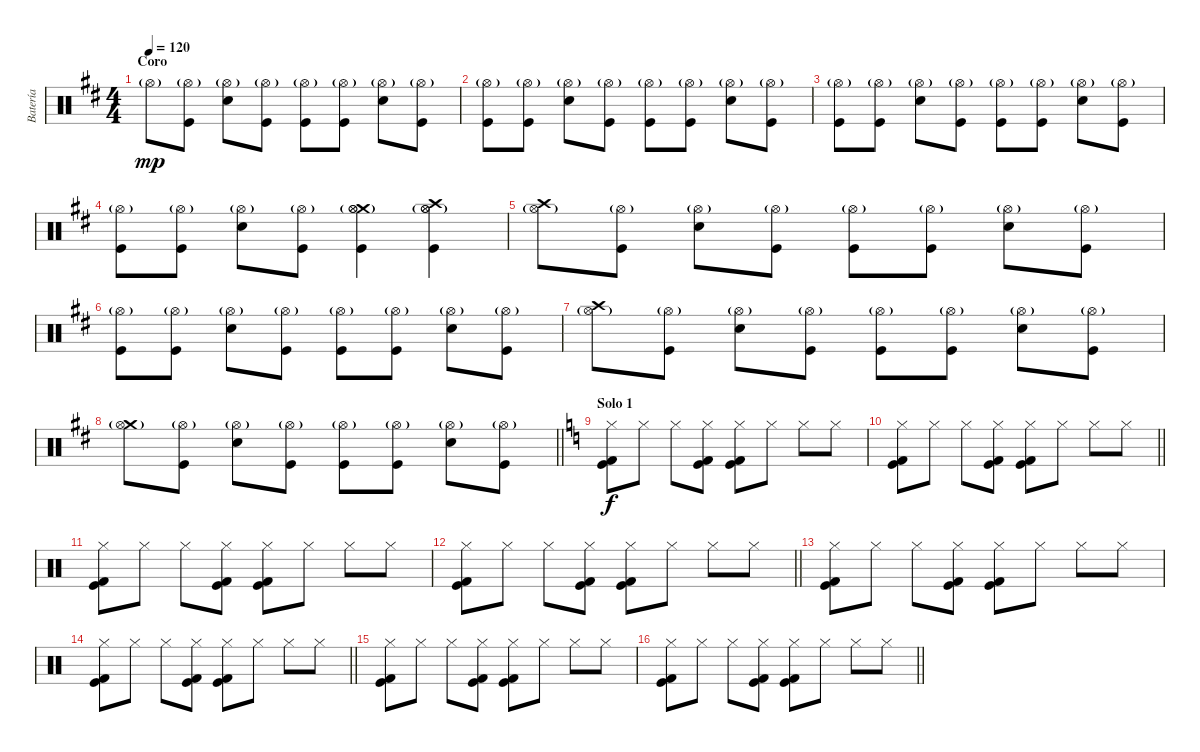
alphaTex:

\track ("Batería" "Batería") {instrument percussion}
\staff {score}
\articulation defaults
\ts (4 4)
\section ("" "Coro")
\tempo 120
\clef neutral
\ks d "Hi-Hat (open)"{g}.8{dy mp}
("Kick (hit)" "Hi-Hat (open)"{g}).8 ("Electric Snare (hit)" "Hi-Hat (open)"{g}).8 ("Kick (hit)" "Hi-Hat (open)"{g}).8 ("Kick (hit)" "Hi-Hat (open)"{g}).8 ("Kick (hit)" "Hi-Hat (open)"{g}).8 ("Electric Snare (hit)" "Hi-Hat (open)"{g}).8 ("Kick (hit)" "Hi-Hat (open)"{g}).8 |
("Kick (hit)" "Hi-Hat (open)"{g}).8 ("Kick (hit)" "Hi-Hat (open)"{g}).8 ("Electric Snare (hit)" "Hi-Hat (open)"{g}).8 ("Kick (hit)" "Hi-Hat (open)"{g}).8 ("Kick (hit)" "Hi-Hat (open)"{g}).8 ("Kick (hit)" "Hi-Hat (open)"{g}).8 ("Electric Snare (hit)" "Hi-Hat (open)"{g}).8 ("Kick (hit)" "Hi-Hat (open)"{g}).8 |
("Kick (hit)" "Hi-Hat (open)"{g}).8 ("Kick (hit)" "Hi-Hat (open)"{g}).8 ("Electric Snare (hit)" "Hi-Hat (open)"{g}).8 ("Kick (hit)" "Hi-Hat (open)"{g}).8 ("Kick (hit)" "Hi-Hat (open)"{g}).8 ("Kick (hit)" "Hi-Hat (open)"{g}).8 ("Electric Snare (hit)" "Hi-Hat (open)"{g}).8 ("Kick (hit)" "Hi-Hat (open)"{g}).8 |
("Kick (hit)" "Hi-Hat (open)"{g}).8 ("Kick (hit)" "Hi-Hat (open)"{g}).8 ("Electric Snare (hit)" "Hi-Hat (open)"{g}).8 ("Kick (hit)" "Hi-Hat (open)"{g}).8 ("Crash medium (hit)" "Hi-Hat (open)" "Kick (hit)" "Hi-Hat (open)"{g}).4 ("Crash high (hit)" "Hi-Hat (open)" "Kick (hit)" "Hi-Hat (open)"{g}).4 |
("Crash high (hit)" "Hi-Hat (open)"{g}).8 ("Kick (hit)" "Hi-Hat (open)"{g}).8 ("Electric Snare (hit)" "Hi-Hat (open)"{g}).8 ("Kick (hit)" "Hi-Hat (open)"{g}).8 ("Kick (hit)" "Hi-Hat (open)"{g}).8 ("Kick (hit)" "Hi-Hat (open)"{g}).8 ("Electric Snare (hit)" "Hi-Hat (open)"{g}).8 ("Kick (hit)" "Hi-Hat (open)"{g}).8 |
("Kick (hit)" "Hi-Hat (open)"{g}).8 ("Kick (hit)" "Hi-Hat (open)"{g}).8 ("Electric Snare (hit)" "Hi-Hat (open)"{g}).8 ("Kick (hit)" "Hi-Hat (open)"{g}).8 ("Kick (hit)" "Hi-Hat (open)"{g}).8 ("Kick (hit)" "Hi-Hat (open)"{g}).8 ("Electric Snare (hit)" "Hi-Hat (open)"{g}).8 ("Kick (hit)" "Hi-Hat (open)"{g}).8 |
("Crash high (hit)" "Hi-Hat (open)"{g}).8 ("Kick (hit)" "Hi-Hat (open)"{g}).8 ("Electric Snare (hit)" "Hi-Hat (open)"{g}).8 ("Kick (hit)" "Hi-Hat (open)"{g}).8 ("Kick (hit)" "Hi-Hat (open)"{g}).8 ("Kick (hit)" "Hi-Hat (open)"{g}).8 ("Electric Snare (hit)" "Hi-Hat (open)"{g}).8 ("Kick (hit)" "Hi-Hat (open)"{g}).8 |
\barLineRight lightlight
("Crash medium (hit)" "Hi-Hat (open)"{g}).8 ("Kick (hit)" "Hi-Hat (open)"{g}).8 ("Electric Snare (hit)" "Hi-Hat (open)"{g}).8 ("Kick (hit)" "Hi-Hat (open)"{g}).8 ("Kick (hit)" "Hi-Hat (open)"{g}).8 ("Kick (hit)" "Hi-Hat (open)"{g}).8 ("Electric Snare (hit)" "Hi-Hat (open)"{g}).8 ("Kick (hit)" "Hi-Hat (open)"{g}).8 |
\section ("" "Solo 1")
\ks c
("Hi-Hat (closed)" "Kick (hit)" "Kick (hit) 2").8{dy f} "Hi-Hat (closed)".8 "Hi-Hat (closed)".8 ("Hi-Hat (closed)" "Kick (hit)" "Kick (hit) 2").8 ("Hi-Hat (closed)" "Kick (hit)" "Kick (hit) 2").8 "Hi-Hat (closed)".8 "Hi-Hat (closed)".8 "Hi-Hat (closed)".8 |
\barLineRight lightlight
("Hi-Hat (closed)" "Kick (hit)" "Kick (hit) 2").8 "Hi-Hat (closed)".8 "Hi-Hat (closed)".8 ("Hi-Hat (closed)" "Kick (hit)" "Kick (hit) 2").8 ("Hi-Hat (closed)" "Kick (hit)" "Kick (hit) 2").8 "Hi-Hat (closed)".8 "Hi-Hat (closed)".8 "Hi-Hat (closed)".8 |
("Hi-Hat (closed)" "Kick (hit)" "Kick (hit) 2").8 "Hi-Hat (closed)".8 "Hi-Hat (closed)".8 ("Hi-Hat (closed)" "Kick (hit)" "Kick (hit) 2").8 ("Hi-Hat (closed)" "Kick (hit)" "Kick (hit) 2").8 "Hi-Hat (closed)".8 "Hi-Hat (closed)".8 "Hi-Hat (closed)".8 |
\barLineRight lightlight
("Hi-Hat (closed)" "Kick (hit)" "Kick (hit) 2").8 "Hi-Hat (closed)".8 "Hi-Hat (closed)".8 ("Hi-Hat (closed)" "Kick (hit)" "Kick (hit) 2").8 ("Hi-Hat (closed)" "Kick (hit)" "Kick (hit) 2").8 "Hi-Hat (closed)".8 "Hi-Hat (closed)".8 "Hi-Hat (closed)".8 |
("Hi-Hat (closed)" "Kick (hit)" "Kick (hit) 2").8 "Hi-Hat (closed)".8 "Hi-Hat (closed)".8 ("Hi-Hat (closed)" "Kick (hit)" "Kick (hit) 2").8 ("Hi-Hat (closed)" "Kick (hit)" "Kick (hit) 2").8 "Hi-Hat (closed)".8 "Hi-Hat (closed)".8 "Hi-Hat (closed)".8 |
\barLineRight lightlight
("Hi-Hat (closed)" "Kick (hit)" "Kick (hit) 2").8 "Hi-Hat (closed)".8 "Hi-Hat (closed)".8 ("Hi-Hat (closed)" "Kick (hit)" "Kick (hit) 2").8 ("Hi-Hat (closed)" "Kick (hit)" "Kick (hit) 2").8 "Hi-Hat (closed)".8 "Hi-Hat (closed)".8 "Hi-Hat (closed)".8 |
("Hi-Hat (closed)" "Kick (hit)" "Kick (hit) 2").8 "Hi-Hat (closed)".8 "Hi-Hat (closed)".8 ("Hi-Hat (closed)" "Kick (hit)" "Kick (hit) 2").8 ("Hi-Hat (closed)" "Kick (hit)" "Kick (hit) 2").8 "Hi-Hat (closed)".8 "Hi-Hat (closed)".8 "Hi-Hat (closed)".8 |
\barLineRight lightlight
("Hi-Hat (closed)" "Kick (hit)" "Kick (hit) 2").8 "Hi-Hat (closed)".8 "Hi-Hat (closed)".8 ("Hi-Hat (closed)" "Kick (hit)" "Kick (hit) 2").8 ("Hi-Hat (closed)" "Kick (hit)" "Kick (hit) 2").8 "Hi-Hat (closed)".8 "Hi-Hat (closed)".8 "Hi-Hat (closed)".8
